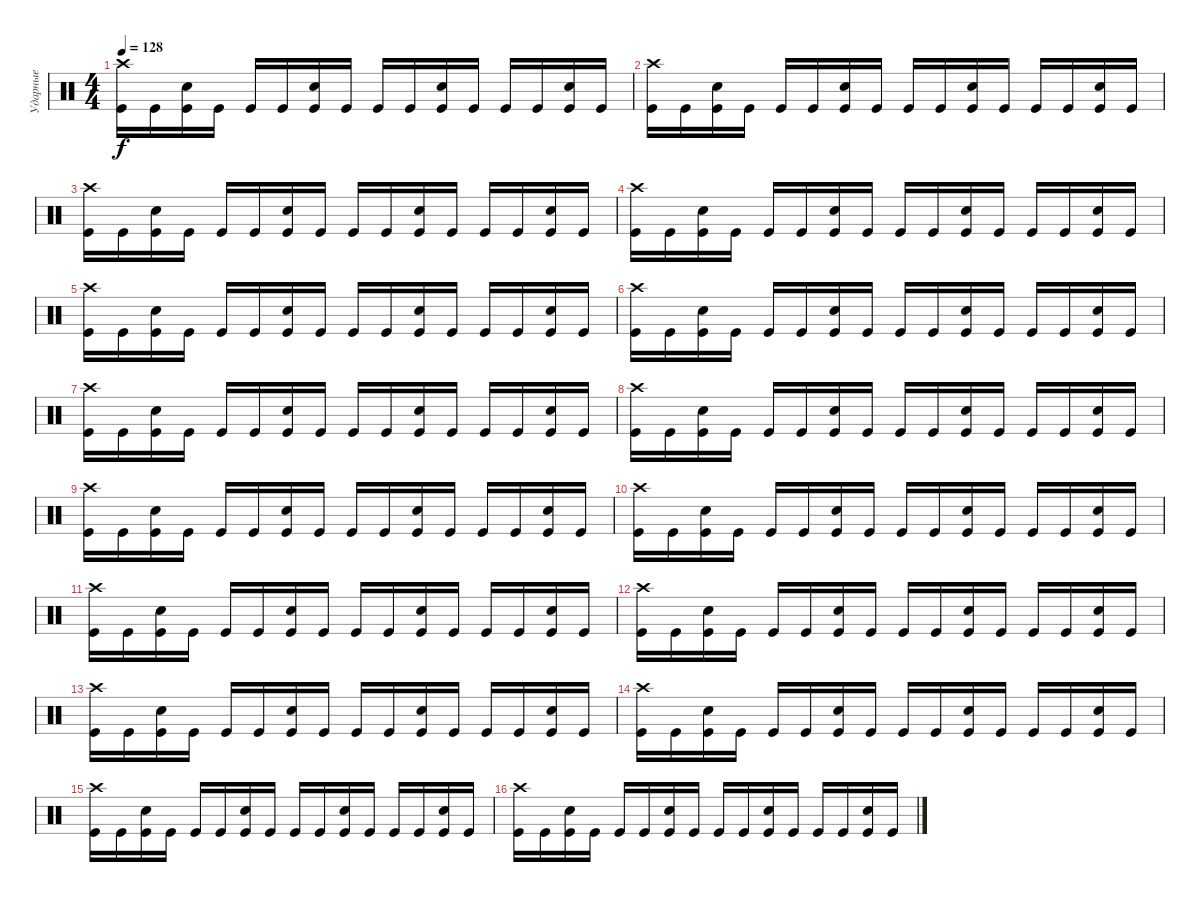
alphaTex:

\track ("Ударные" "Ударные") {instrument percussion}
\staff {score}
\articulation defaults
\ts (4 4)
\tempo 128
\clef neutral
\ks c
("Crash high (hit)" "Kick (hit)").16{dy f} "Kick (hit)".16 ("Electric Snare (hit)" "Kick (hit)").16 "Kick (hit)".16 "Kick (hit)".16 "Kick (hit)".16 ("Electric Snare (hit)" "Kick (hit)").16 "Kick (hit)".16 "Kick (hit)".16 "Kick (hit)".16 ("Electric Snare (hit)" "Kick (hit)").16 "Kick (hit)".16 "Kick (hit)".16 "Kick (hit)".16 ("Electric Snare (hit)" "Kick (hit)").16 "Kick (hit)".16 |
("Crash high (hit)" "Kick (hit)").16 "Kick (hit)".16 ("Electric Snare (hit)" "Kick (hit)").16 "Kick (hit)".16 "Kick (hit)".16 "Kick (hit)".16 ("Electric Snare (hit)" "Kick (hit)").16 "Kick (hit)".16 "Kick (hit)".16 "Kick (hit)".16 ("Electric Snare (hit)" "Kick (hit)").16 "Kick (hit)".16 "Kick (hit)".16 "Kick (hit)".16 ("Electric Snare (hit)" "Kick (hit)").16 "Kick (hit)".16 |
("Crash high (hit)" "Kick (hit)").16 "Kick (hit)".16 ("Electric Snare (hit)" "Kick (hit)").16 "Kick (hit)".16 "Kick (hit)".16 "Kick (hit)".16 ("Electric Snare (hit)" "Kick (hit)").16 "Kick (hit)".16 "Kick (hit)".16 "Kick (hit)".16 ("Electric Snare (hit)" "Kick (hit)").16 "Kick (hit)".16 "Kick (hit)".16 "Kick (hit)".16 ("Electric Snare (hit)" "Kick (hit)").16 "Kick (hit)".16 |
("Crash high (hit)" "Kick (hit)").16 "Kick (hit)".16 ("Electric Snare (hit)" "Kick (hit)").16 "Kick (hit)".16 "Kick (hit)".16 "Kick (hit)".16 ("Electric Snare (hit)" "Kick (hit)").16 "Kick (hit)".16 "Kick (hit)".16 "Kick (hit)".16 ("Electric Snare (hit)" "Kick (hit)").16 "Kick (hit)".16 "Kick (hit)".16 "Kick (hit)".16 ("Electric Snare (hit)" "Kick (hit)").16 "Kick (hit)".16 |
("Crash high (hit)" "Kick (hit)").16 "Kick (hit)".16 ("Electric Snare (hit)" "Kick (hit)").16 "Kick (hit)".16 "Kick (hit)".16 "Kick (hit)".16 ("Electric Snare (hit)" "Kick (hit)").16 "Kick (hit)".16 "Kick (hit)".16 "Kick (hit)".16 ("Electric Snare (hit)" "Kick (hit)").16 "Kick (hit)".16 "Kick (hit)".16 "Kick (hit)".16 ("Electric Snare (hit)" "Kick (hit)").16 "Kick (hit)".16 |
("Crash high (hit)" "Kick (hit)").16 "Kick (hit)".16 ("Electric Snare (hit)" "Kick (hit)").16 "Kick (hit)".16 "Kick (hit)".16 "Kick (hit)".16 ("Electric Snare (hit)" "Kick (hit)").16 "Kick (hit)".16 "Kick (hit)".16 "Kick (hit)".16 ("Electric Snare (hit)" "Kick (hit)").16 "Kick (hit)".16 "Kick (hit)".16 "Kick (hit)".16 ("Electric Snare (hit)" "Kick (hit)").16 "Kick (hit)".16 |
("Crash high (hit)" "Kick (hit)").16 "Kick (hit)".16 ("Electric Snare (hit)" "Kick (hit)").16 "Kick (hit)".16 "Kick (hit)".16 "Kick (hit)".16 ("Electric Snare (hit)" "Kick (hit)").16 "Kick (hit)".16 "Kick (hit)".16 "Kick (hit)".16 ("Electric Snare (hit)" "Kick (hit)").16 "Kick (hit)".16 "Kick (hit)".16 "Kick (hit)".16 ("Electric Snare (hit)" "Kick (hit)").16 "Kick (hit)".16 |
("Crash high (hit)" "Kick (hit)").16 "Kick (hit)".16 ("Electric Snare (hit)" "Kick (hit)").16 "Kick (hit)".16 "Kick (hit)".16 "Kick (hit)".16 ("Electric Snare (hit)" "Kick (hit)").16 "Kick (hit)".16 "Kick (hit)".16 "Kick (hit)".16 ("Electric Snare (hit)" "Kick (hit)").16 "Kick (hit)".16 "Kick (hit)".16 "Kick (hit)".16 ("Electric Snare (hit)" "Kick (hit)").16 "Kick (hit)".16 |
("Crash high (hit)" "Kick (hit)").16 "Kick (hit)".16 ("Electric Snare (hit)" "Kick (hit)").16 "Kick (hit)".16 "Kick (hit)".16 "Kick (hit)".16 ("Electric Snare (hit)" "Kick (hit)").16 "Kick (hit)".16 "Kick (hit)".16 "Kick (hit)".16 ("Electric Snare (hit)" "Kick (hit)").16 "Kick (hit)".16 "Kick (hit)".16 "Kick (hit)".16 ("Electric Snare (hit)" "Kick (hit)").16 "Kick (hit)".16 |
("Crash high (hit)" "Kick (hit)").16 "Kick (hit)".16 ("Electric Snare (hit)" "Kick (hit)").16 "Kick (hit)".16 "Kick (hit)".16 "Kick (hit)".16 ("Electric Snare (hit)" "Kick (hit)").16 "Kick (hit)".16 "Kick (hit)".16 "Kick (hit)".16 ("Electric Snare (hit)" "Kick (hit)").16 "Kick (hit)".16 "Kick (hit)".16 "Kick (hit)".16 ("Electric Snare (hit)" "Kick (hit)").16 "Kick (hit)".16 |
("Crash high (hit)" "Kick (hit)").16 "Kick (hit)".16 ("Electric Snare (hit)" "Kick (hit)").16 "Kick (hit)".16 "Kick (hit)".16 "Kick (hit)".16 ("Electric Snare (hit)" "Kick (hit)").16 "Kick (hit)".16 "Kick (hit)".16 "Kick (hit)".16 ("Electric Snare (hit)" "Kick (hit)").16 "Kick (hit)".16 "Kick (hit)".16 "Kick (hit)".16 ("Electric Snare (hit)" "Kick (hit)").16 "Kick (hit)".16 |
("Crash high (hit)" "Kick (hit)").16 "Kick (hit)".16 ("Electric Snare (hit)" "Kick (hit)").16 "Kick (hit)".16 "Kick (hit)".16 "Kick (hit)".16 ("Electric Snare (hit)" "Kick (hit)").16 "Kick (hit)".16 "Kick (hit)".16 "Kick (hit)".16 ("Electric Snare (hit)" "Kick (hit)").16 "Kick (hit)".16 "Kick (hit)".16 "Kick (hit)".16 ("Electric Snare (hit)" "Kick (hit)").16 "Kick (hit)".16 |
("Crash high (hit)" "Kick (hit)").16 "Kick (hit)".16 ("Electric Snare (hit)" "Kick (hit)").16 "Kick (hit)".16 "Kick (hit)".16 "Kick (hit)".16 ("Electric Snare (hit)" "Kick (hit)").16 "Kick (hit)".16 "Kick (hit)".16 "Kick (hit)".16 ("Electric Snare (hit)" "Kick (hit)").16 "Kick (hit)".16 "Kick (hit)".16 "Kick (hit)".16 ("Electric Snare (hit)" "Kick (hit)").16 "Kick (hit)".16 |
("Crash high (hit)" "Kick (hit)").16 "Kick (hit)".16 ("Electric Snare (hit)" "Kick (hit)").16 "Kick (hit)".16 "Kick (hit)".16 "Kick (hit)".16 ("Electric Snare (hit)" "Kick (hit)").16 "Kick (hit)".16 "Kick (hit)".16 "Kick (hit)".16 ("Electric Snare (hit)" "Kick (hit)").16 "Kick (hit)".16 "Kick (hit)".16 "Kick (hit)".16 ("Electric Snare (hit)" "Kick (hit)").16 "Kick (hit)".16 |
("Crash high (hit)" "Kick (hit)").16 "Kick (hit)".16 ("Electric Snare (hit)" "Kick (hit)").16 "Kick (hit)".16 "Kick (hit)".16 "Kick (hit)".16 ("Electric Snare (hit)" "Kick (hit)").16 "Kick (hit)".16 "Kick (hit)".16 "Kick (hit)".16 ("Electric Snare (hit)" "Kick (hit)").16 "Kick (hit)".16 "Kick (hit)".16 "Kick (hit)".16 ("Electric Snare (hit)" "Kick (hit)").16 "Kick (hit)".16 |
("Crash high (hit)" "Kick (hit)").16 "Kick (hit)".16 ("Electric Snare (hit)" "Kick (hit)").16 "Kick (hit)".16 "Kick (hit)".16 "Kick (hit)".16 ("Electric Snare (hit)" "Kick (hit)").16 "Kick (hit)".16 "Kick (hit)".16 "Kick (hit)".16 ("Electric Snare (hit)" "Kick (hit)").16 "Kick (hit)".16 "Kick (hit)".16 "Kick (hit)".16 ("Electric Snare (hit)" "Kick (hit)").16 "Kick (hit)".16
